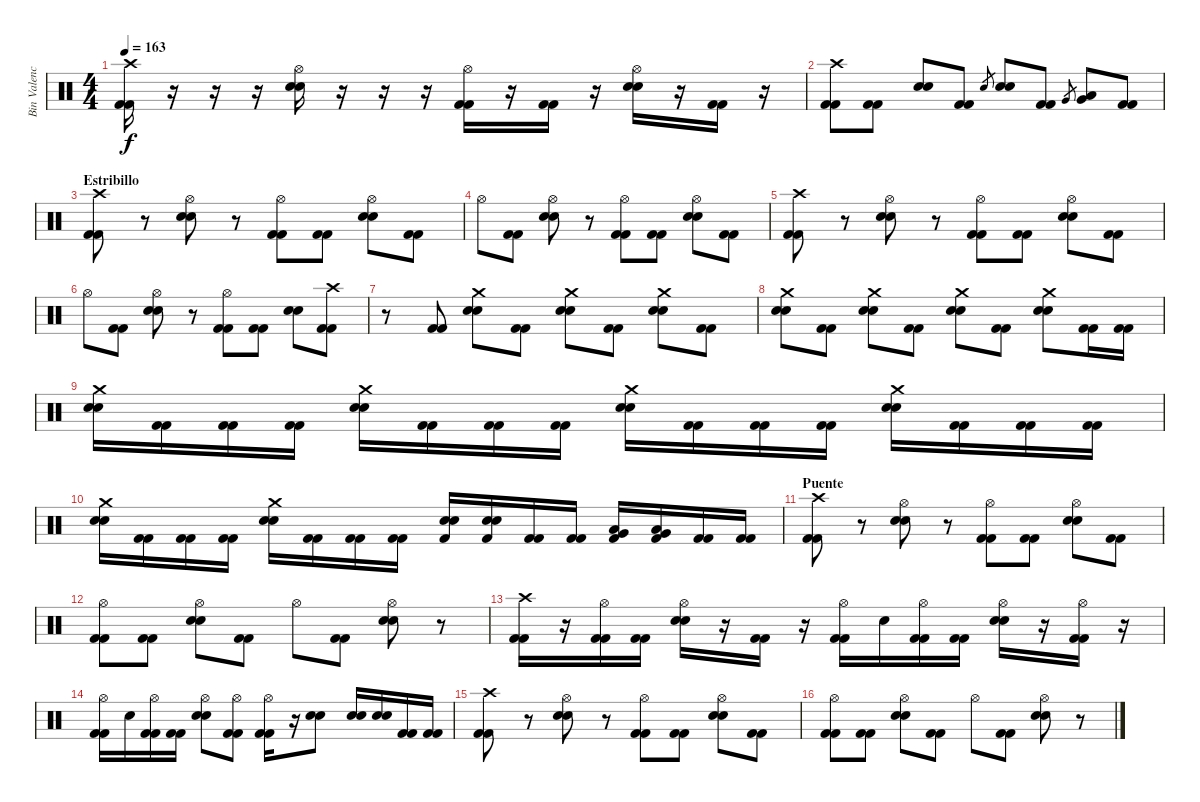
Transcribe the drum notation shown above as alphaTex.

\track ("Bin Valencia" "Bin Valenc") {instrument percussion}
\staff {score}
\articulation defaults
\ts (4 4)
\tempo 163
\clef neutral
\ks c
("Crash high (hit)" "Kick (hit) 2" "Kick (hit) 2").16{dy f} r.16 r.16 r.16 ("Hi-Hat (open)" "Snare (hit) 2" "Snare (hit) 2").16 r.16 r.16 r.16 ("Hi-Hat (open)" "Kick (hit) 2" "Kick (hit) 2").16 r.16 ("Kick (hit) 2" "Kick (hit) 2").16 r.16 ("Hi-Hat (open)" "Snare (hit) 2" "Snare (hit) 2").16 r.16 ("Kick (hit) 2" "Kick (hit) 2").16 r.16 |
("Crash high (hit)" "Kick (hit) 2" "Kick (hit) 2").8 ("Kick (hit) 2" "Kick (hit) 2").8 ("Snare (hit) 2" "Snare (hit) 2").8 ("Kick (hit) 2" "Kick (hit) 2").8 "Snare (hit) 2".8{gr} ("Snare (hit) 2" "Snare (hit) 2").8 ("Kick (hit) 2" "Kick (hit) 2").8 "Very Low Tom (hit)".8{gr} ("Low Floor Tom (hit)" "Very Low Tom (hit)").8 ("Kick (hit) 2" "Kick (hit) 2").8 |
\section ("" "Estribillo")
("Crash high (hit)" "Kick (hit) 2" "Kick (hit) 2").8 r.8 ("Hi-Hat (open)" "Snare (hit) 2" "Snare (hit) 2").8 r.8 ("Hi-Hat (open)" "Kick (hit) 2" "Kick (hit) 2").8 ("Kick (hit) 2" "Kick (hit) 2").8 ("Hi-Hat (open)" "Snare (hit) 2" "Snare (hit) 2").8 ("Kick (hit) 2" "Kick (hit) 2").8 |
"Hi-Hat (open)".8 ("Kick (hit) 2" "Kick (hit) 2").8 ("Hi-Hat (open)" "Snare (hit) 2" "Snare (hit) 2").8 r.8 ("Hi-Hat (open)" "Kick (hit) 2" "Kick (hit) 2").8 ("Kick (hit) 2" "Kick (hit) 2").8 ("Hi-Hat (open)" "Snare (hit) 2" "Snare (hit) 2").8 ("Kick (hit) 2" "Kick (hit) 2").8 |
("Crash high (hit)" "Kick (hit) 2" "Kick (hit) 2").8 r.8 ("Hi-Hat (open)" "Snare (hit) 2" "Snare (hit) 2").8 r.8 ("Hi-Hat (open)" "Kick (hit) 2" "Kick (hit) 2").8 ("Kick (hit) 2" "Kick (hit) 2").8 ("Hi-Hat (open)" "Snare (hit) 2" "Snare (hit) 2").8 ("Kick (hit) 2" "Kick (hit) 2").8 |
"Hi-Hat (open)".8 ("Kick (hit) 2" "Kick (hit) 2").8 ("Hi-Hat (open)" "Snare (hit) 2" "Snare (hit) 2").8 r.8 ("Hi-Hat (open)" "Kick (hit) 2" "Kick (hit) 2").8 ("Kick (hit) 2" "Kick (hit) 2").8 ("Snare (hit) 2" "Snare (hit) 2").8 ("Crash high (hit)" "Kick (hit) 2" "Kick (hit) 2").8 |
r.8 ("Kick (hit) 2" "Kick (hit) 2").8 ("Crash medium (hit)" "Snare (hit) 2" "Snare (hit) 2").8 ("Kick (hit) 2" "Kick (hit) 2").8 ("Crash medium (hit)" "Snare (hit) 2" "Snare (hit) 2").8 ("Kick (hit) 2" "Kick (hit) 2").8 ("Crash medium (hit)" "Snare (hit) 2" "Snare (hit) 2").8 ("Kick (hit) 2" "Kick (hit) 2").8 |
("Crash medium (hit)" "Snare (hit) 2" "Snare (hit) 2").8 ("Kick (hit) 2" "Kick (hit) 2").8 ("Crash medium (hit)" "Snare (hit) 2" "Snare (hit) 2").8 ("Kick (hit) 2" "Kick (hit) 2").8 ("Crash medium (hit)" "Snare (hit) 2" "Snare (hit) 2").8 ("Kick (hit) 2" "Kick (hit) 2").8 ("Crash medium (hit)" "Snare (hit) 2" "Snare (hit) 2").8 ("Kick (hit) 2" "Kick (hit) 2").16 ("Kick (hit) 2" "Kick (hit) 2").16 |
("Crash medium (hit)" "Snare (hit) 2" "Snare (hit) 2").16 ("Kick (hit) 2" "Kick (hit) 2").16 ("Kick (hit) 2" "Kick (hit) 2").16 ("Kick (hit) 2" "Kick (hit) 2").16 ("Crash medium (hit)" "Snare (hit) 2" "Snare (hit) 2").16 ("Kick (hit) 2" "Kick (hit) 2").16 ("Kick (hit) 2" "Kick (hit) 2").16 ("Kick (hit) 2" "Kick (hit) 2").16 ("Crash medium (hit)" "Snare (hit) 2" "Snare (hit) 2").16 ("Kick (hit) 2" "Kick (hit) 2").16 ("Kick (hit) 2" "Kick (hit) 2").16 ("Kick (hit) 2" "Kick (hit) 2").16 ("Crash medium (hit)" "Snare (hit) 2" "Snare (hit) 2").16 ("Kick (hit) 2" "Kick (hit) 2").16 ("Kick (hit) 2" "Kick (hit) 2").16 ("Kick (hit) 2" "Kick (hit) 2").16 |
("Crash medium (hit)" "Snare (hit) 2" "Snare (hit) 2").16 ("Kick (hit) 2" "Kick (hit) 2").16 ("Kick (hit) 2" "Kick (hit) 2").16 ("Kick (hit) 2" "Kick (hit) 2").16 ("Crash medium (hit)" "Snare (hit) 2" "Snare (hit) 2").16 ("Kick (hit) 2" "Kick (hit) 2").16 ("Kick (hit) 2" "Kick (hit) 2").16 ("Kick (hit) 2" "Kick (hit) 2").16 ("Snare (hit) 2" "Snare (hit) 2" "Kick (hit) 2").16 ("Snare (hit) 2" "Snare (hit) 2" "Kick (hit) 2").16 ("Kick (hit) 2" "Kick (hit) 2").16 ("Kick (hit) 2" "Kick (hit) 2").16 ("Very Low Tom (hit)" "Low Tom (hit)" "Kick (hit) 2").16 ("Very Low Tom (hit)" "Low Tom (hit)" "Kick (hit) 2").16 ("Kick (hit) 2" "Kick (hit) 2").16 ("Kick (hit) 2" "Kick (hit) 2").16 |
\section ("" "Puente")
("Crash high (hit)" "Kick (hit) 2" "Kick (hit) 2").8 r.8 ("Hi-Hat (open)" "Snare (hit) 2" "Snare (hit) 2").8 r.8 ("Hi-Hat (open)" "Kick (hit) 2" "Kick (hit) 2").8 ("Kick (hit) 2" "Kick (hit) 2").8 ("Hi-Hat (open)" "Snare (hit) 2" "Snare (hit) 2").8 ("Kick (hit) 2" "Kick (hit) 2").8 |
("Hi-Hat (open)" "Kick (hit) 2" "Kick (hit) 2").8 ("Kick (hit) 2" "Kick (hit) 2").8 ("Hi-Hat (open)" "Snare (hit) 2" "Snare (hit) 2").8 ("Kick (hit) 2" "Kick (hit) 2").8 "Hi-Hat (open)".8 ("Kick (hit) 2" "Kick (hit) 2").8 ("Hi-Hat (open)" "Snare (hit) 2" "Snare (hit) 2").8 r.8 |
("Crash high (hit)" "Kick (hit) 2" "Kick (hit) 2").16 r.16 ("Hi-Hat (open)" "Kick (hit) 2" "Kick (hit) 2").16 ("Kick (hit) 2" "Kick (hit) 2").16 ("Hi-Hat (open)" "Snare (hit) 2" "Snare (hit) 2").16 r.16 ("Kick (hit) 2" "Kick (hit) 2").16 r.16 ("Hi-Hat (open)" "Kick (hit) 2" "Kick (hit) 2").16 "Snare (hit) 2".16 ("Hi-Hat (open)" "Kick (hit) 2" "Kick (hit) 2").16 ("Kick (hit) 2" "Kick (hit) 2").16 ("Hi-Hat (open)" "Snare (hit) 2" "Snare (hit) 2").16 r.16 ("Hi-Hat (open)" "Kick (hit) 2" "Kick (hit) 2").16 r.16 |
("Hi-Hat (open)" "Kick (hit) 2" "Kick (hit) 2").16 "Snare (hit) 2".16 ("Hi-Hat (open)" "Kick (hit) 2" "Kick (hit) 2").16 ("Kick (hit) 2" "Kick (hit) 2").16 ("Hi-Hat (open)" "Snare (hit) 2" "Snare (hit) 2").8 ("Hi-Hat (open)" "Kick (hit) 2" "Kick (hit) 2").8 ("Hi-Hat (open)" "Kick (hit) 2" "Kick (hit) 2").16 r.16 ("Snare (hit) 2" "Snare (hit) 2").8 ("Snare (hit) 2" "Snare (hit) 2").16 ("Snare (hit) 2" "Snare (hit) 2").16 ("Kick (hit) 2" "Kick (hit) 2").16 ("Kick (hit) 2" "Kick (hit) 2").16 |
("Crash high (hit)" "Kick (hit) 2" "Kick (hit) 2").8 r.8 ("Hi-Hat (open)" "Snare (hit) 2" "Snare (hit) 2").8 r.8 ("Hi-Hat (open)" "Kick (hit) 2" "Kick (hit) 2").8 ("Kick (hit) 2" "Kick (hit) 2").8 ("Hi-Hat (open)" "Snare (hit) 2" "Snare (hit) 2").8 ("Kick (hit) 2" "Kick (hit) 2").8 |
("Hi-Hat (open)" "Kick (hit) 2" "Kick (hit) 2").8 ("Kick (hit) 2" "Kick (hit) 2").8 ("Hi-Hat (open)" "Snare (hit) 2" "Snare (hit) 2").8 ("Kick (hit) 2" "Kick (hit) 2").8 "Hi-Hat (open)".8 ("Kick (hit) 2" "Kick (hit) 2").8 ("Hi-Hat (open)" "Snare (hit) 2" "Snare (hit) 2").8 r.8
